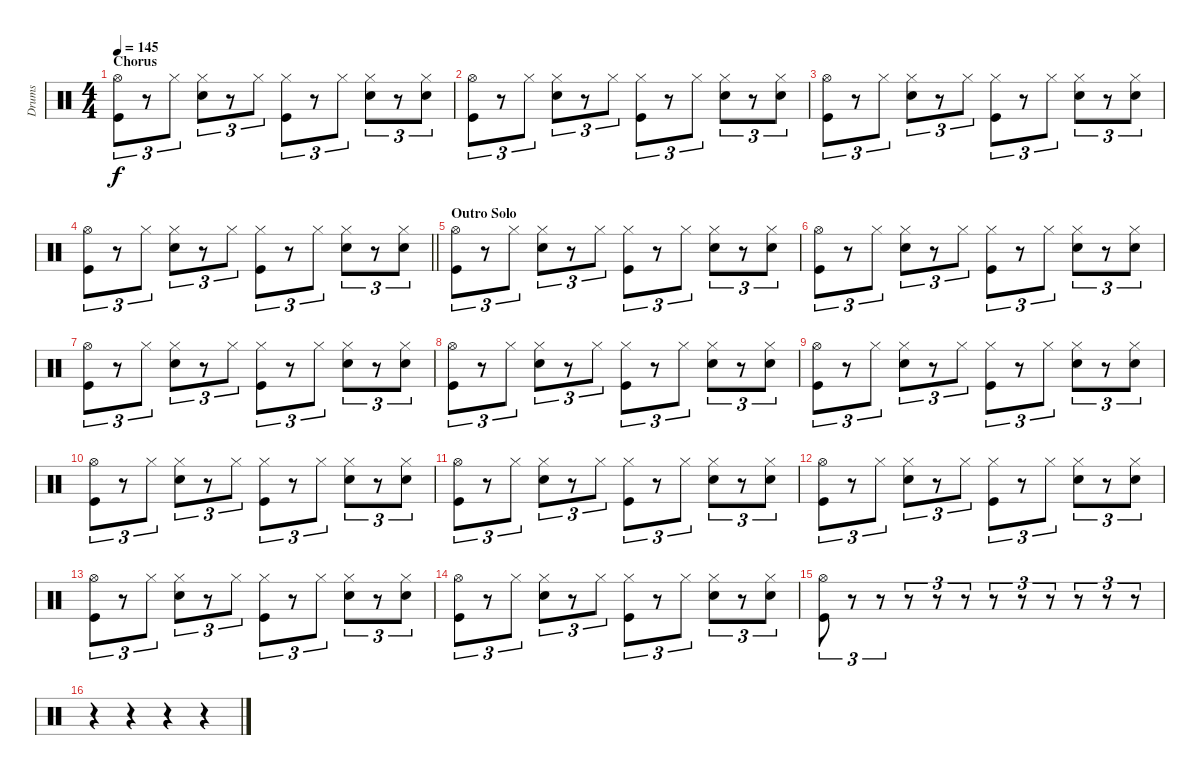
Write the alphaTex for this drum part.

\track ("Drums" "Drums") {instrument percussion}
\staff {score}
\articulation defaults
\ts (4 4)
\section ("" "Chorus")
\tempo 145
\clef neutral
\ks c
("Hi-Hat (open)" "Kick (hit)").8{tu (3 2) dy f} r.8{tu (3 2)} "Hi-Hat (closed)".8{tu (3 2)} ("Hi-Hat (closed)" "Snare (hit) 2").8{tu (3 2)} r.8{tu (3 2)} "Hi-Hat (closed)".8{tu (3 2)} ("Hi-Hat (closed)" "Kick (hit)").8{tu (3 2)} r.8{tu (3 2)} "Hi-Hat (closed)".8{tu (3 2)} ("Hi-Hat (closed)" "Snare (hit) 2").8{tu (3 2)} r.8{tu (3 2)} ("Hi-Hat (closed)" "Snare (hit) 2").8{tu (3 2)} |
("Hi-Hat (open)" "Kick (hit)").8{tu (3 2)} r.8{tu (3 2)} "Hi-Hat (closed)".8{tu (3 2)} ("Hi-Hat (closed)" "Snare (hit) 2").8{tu (3 2)} r.8{tu (3 2)} "Hi-Hat (closed)".8{tu (3 2)} ("Hi-Hat (closed)" "Kick (hit)").8{tu (3 2)} r.8{tu (3 2)} "Hi-Hat (closed)".8{tu (3 2)} ("Hi-Hat (closed)" "Snare (hit) 2").8{tu (3 2)} r.8{tu (3 2)} ("Hi-Hat (closed)" "Snare (hit) 2").8{tu (3 2)} |
("Hi-Hat (open)" "Kick (hit)").8{tu (3 2)} r.8{tu (3 2)} "Hi-Hat (closed)".8{tu (3 2)} ("Hi-Hat (closed)" "Snare (hit) 2").8{tu (3 2)} r.8{tu (3 2)} "Hi-Hat (closed)".8{tu (3 2)} ("Hi-Hat (closed)" "Kick (hit)").8{tu (3 2)} r.8{tu (3 2)} "Hi-Hat (closed)".8{tu (3 2)} ("Hi-Hat (closed)" "Snare (hit) 2").8{tu (3 2)} r.8{tu (3 2)} ("Hi-Hat (closed)" "Snare (hit) 2").8{tu (3 2)} |
\barLineRight lightlight
("Hi-Hat (open)" "Kick (hit)").8{tu (3 2)} r.8{tu (3 2)} "Hi-Hat (closed)".8{tu (3 2)} ("Hi-Hat (closed)" "Snare (hit) 2").8{tu (3 2)} r.8{tu (3 2)} "Hi-Hat (closed)".8{tu (3 2)} ("Hi-Hat (closed)" "Kick (hit)").8{tu (3 2)} r.8{tu (3 2)} "Hi-Hat (closed)".8{tu (3 2)} ("Hi-Hat (closed)" "Snare (hit) 2").8{tu (3 2)} r.8{tu (3 2)} ("Hi-Hat (closed)" "Snare (hit) 2").8{tu (3 2)} |
\section ("" "Outro Solo")
("Hi-Hat (open)" "Kick (hit)").8{tu (3 2)} r.8{tu (3 2)} "Hi-Hat (closed)".8{tu (3 2)} ("Hi-Hat (closed)" "Snare (hit) 2").8{tu (3 2)} r.8{tu (3 2)} "Hi-Hat (closed)".8{tu (3 2)} ("Hi-Hat (closed)" "Kick (hit)").8{tu (3 2)} r.8{tu (3 2)} "Hi-Hat (closed)".8{tu (3 2)} ("Hi-Hat (closed)" "Snare (hit) 2").8{tu (3 2)} r.8{tu (3 2)} ("Hi-Hat (closed)" "Snare (hit) 2").8{tu (3 2)} |
("Hi-Hat (open)" "Kick (hit)").8{tu (3 2)} r.8{tu (3 2)} "Hi-Hat (closed)".8{tu (3 2)} ("Hi-Hat (closed)" "Snare (hit) 2").8{tu (3 2)} r.8{tu (3 2)} "Hi-Hat (closed)".8{tu (3 2)} ("Hi-Hat (closed)" "Kick (hit)").8{tu (3 2)} r.8{tu (3 2)} "Hi-Hat (closed)".8{tu (3 2)} ("Hi-Hat (closed)" "Snare (hit) 2").8{tu (3 2)} r.8{tu (3 2)} ("Hi-Hat (closed)" "Snare (hit) 2").8{tu (3 2)} |
("Hi-Hat (open)" "Kick (hit)").8{tu (3 2)} r.8{tu (3 2)} "Hi-Hat (closed)".8{tu (3 2)} ("Hi-Hat (closed)" "Snare (hit) 2").8{tu (3 2)} r.8{tu (3 2)} "Hi-Hat (closed)".8{tu (3 2)} ("Hi-Hat (closed)" "Kick (hit)").8{tu (3 2)} r.8{tu (3 2)} "Hi-Hat (closed)".8{tu (3 2)} ("Hi-Hat (closed)" "Snare (hit) 2").8{tu (3 2)} r.8{tu (3 2)} ("Hi-Hat (closed)" "Snare (hit) 2").8{tu (3 2)} |
("Hi-Hat (open)" "Kick (hit)").8{tu (3 2)} r.8{tu (3 2)} "Hi-Hat (closed)".8{tu (3 2)} ("Hi-Hat (closed)" "Snare (hit) 2").8{tu (3 2)} r.8{tu (3 2)} "Hi-Hat (closed)".8{tu (3 2)} ("Hi-Hat (closed)" "Kick (hit)").8{tu (3 2)} r.8{tu (3 2)} "Hi-Hat (closed)".8{tu (3 2)} ("Hi-Hat (closed)" "Snare (hit) 2").8{tu (3 2)} r.8{tu (3 2)} ("Hi-Hat (closed)" "Snare (hit) 2").8{tu (3 2)} |
("Hi-Hat (open)" "Kick (hit)").8{tu (3 2)} r.8{tu (3 2)} "Hi-Hat (closed)".8{tu (3 2)} ("Hi-Hat (closed)" "Snare (hit) 2").8{tu (3 2)} r.8{tu (3 2)} "Hi-Hat (closed)".8{tu (3 2)} ("Hi-Hat (closed)" "Kick (hit)").8{tu (3 2)} r.8{tu (3 2)} "Hi-Hat (closed)".8{tu (3 2)} ("Hi-Hat (closed)" "Snare (hit) 2").8{tu (3 2)} r.8{tu (3 2)} ("Hi-Hat (closed)" "Snare (hit) 2").8{tu (3 2)} |
("Hi-Hat (open)" "Kick (hit)").8{tu (3 2)} r.8{tu (3 2)} "Hi-Hat (closed)".8{tu (3 2)} ("Hi-Hat (closed)" "Snare (hit) 2").8{tu (3 2)} r.8{tu (3 2)} "Hi-Hat (closed)".8{tu (3 2)} ("Hi-Hat (closed)" "Kick (hit)").8{tu (3 2)} r.8{tu (3 2)} "Hi-Hat (closed)".8{tu (3 2)} ("Hi-Hat (closed)" "Snare (hit) 2").8{tu (3 2)} r.8{tu (3 2)} ("Hi-Hat (closed)" "Snare (hit) 2").8{tu (3 2)} |
("Hi-Hat (open)" "Kick (hit)").8{tu (3 2)} r.8{tu (3 2)} "Hi-Hat (closed)".8{tu (3 2)} ("Hi-Hat (closed)" "Snare (hit) 2").8{tu (3 2)} r.8{tu (3 2)} "Hi-Hat (closed)".8{tu (3 2)} ("Hi-Hat (closed)" "Kick (hit)").8{tu (3 2)} r.8{tu (3 2)} "Hi-Hat (closed)".8{tu (3 2)} ("Hi-Hat (closed)" "Snare (hit) 2").8{tu (3 2)} r.8{tu (3 2)} ("Hi-Hat (closed)" "Snare (hit) 2").8{tu (3 2)} |
("Hi-Hat (open)" "Kick (hit)").8{tu (3 2)} r.8{tu (3 2)} "Hi-Hat (closed)".8{tu (3 2)} ("Hi-Hat (closed)" "Snare (hit) 2").8{tu (3 2)} r.8{tu (3 2)} "Hi-Hat (closed)".8{tu (3 2)} ("Hi-Hat (closed)" "Kick (hit)").8{tu (3 2)} r.8{tu (3 2)} "Hi-Hat (closed)".8{tu (3 2)} ("Hi-Hat (closed)" "Snare (hit) 2").8{tu (3 2)} r.8{tu (3 2)} ("Hi-Hat (closed)" "Snare (hit) 2").8{tu (3 2)} |
("Hi-Hat (open)" "Kick (hit)").8{tu (3 2)} r.8{tu (3 2)} "Hi-Hat (closed)".8{tu (3 2)} ("Hi-Hat (closed)" "Snare (hit) 2").8{tu (3 2)} r.8{tu (3 2)} "Hi-Hat (closed)".8{tu (3 2)} ("Hi-Hat (closed)" "Kick (hit)").8{tu (3 2)} r.8{tu (3 2)} "Hi-Hat (closed)".8{tu (3 2)} ("Hi-Hat (closed)" "Snare (hit) 2").8{tu (3 2)} r.8{tu (3 2)} ("Hi-Hat (closed)" "Snare (hit) 2").8{tu (3 2)} |
("Hi-Hat (open)" "Kick (hit)").8{tu (3 2)} r.8{tu (3 2)} "Hi-Hat (closed)".8{tu (3 2)} ("Hi-Hat (closed)" "Snare (hit) 2").8{tu (3 2)} r.8{tu (3 2)} "Hi-Hat (closed)".8{tu (3 2)} ("Hi-Hat (closed)" "Kick (hit)").8{tu (3 2)} r.8{tu (3 2)} "Hi-Hat (closed)".8{tu (3 2)} ("Hi-Hat (closed)" "Snare (hit) 2").8{tu (3 2)} r.8{tu (3 2)} ("Hi-Hat (closed)" "Snare (hit) 2").8{tu (3 2)} |
("Hi-Hat (open)" "Kick (hit)").8{tu (3 2)} r.8{tu (3 2)} r.8{tu (3 2)} r.8{tu (3 2)} r.8{tu (3 2)} r.8{tu (3 2)} r.8{tu (3 2)} r.8{tu (3 2)} r.8{tu (3 2)} r.8{tu (3 2)} r.8{tu (3 2)} r.8{tu (3 2)} |
r.4 r.4 r.4 r.4
